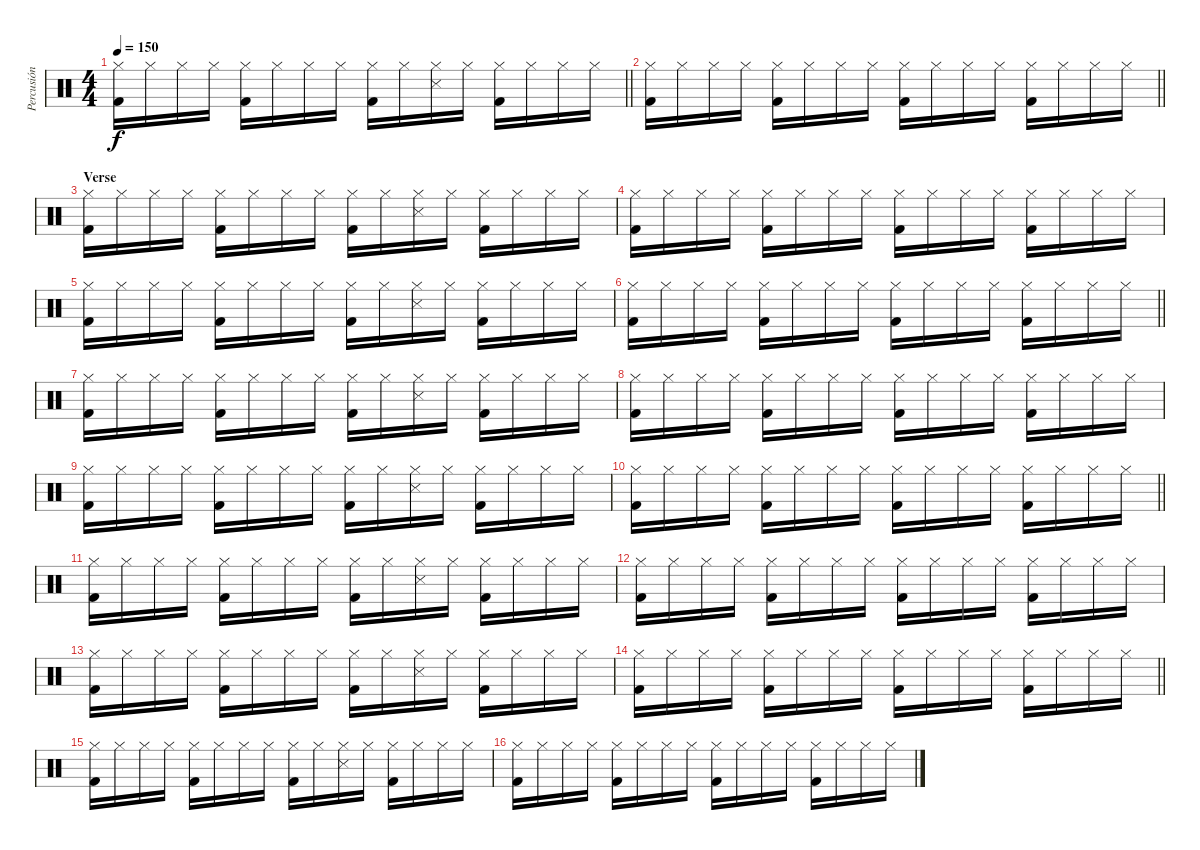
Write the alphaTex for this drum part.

\track ("Percusión" "Percusión") {instrument percussion}
\staff {score}
\articulation defaults
\ts (4 4)
\tempo 150
\clef neutral
\barLineRight lightlight
\ks c
("Kick (hit) 2" "Hi-Hat (closed)").16{dy f} "Hi-Hat (closed)".16 "Hi-Hat (closed)".16 "Hi-Hat (closed)".16 ("Kick (hit) 2" "Hi-Hat (closed)").16 "Hi-Hat (closed)".16 "Hi-Hat (closed)".16 "Hi-Hat (closed)".16 ("Kick (hit) 2" "Hi-Hat (closed)").16 "Hi-Hat (closed)".16 ("Snare (side stick) 3" "Hi-Hat (closed)").16 "Hi-Hat (closed)".16 ("Kick (hit) 2" "Hi-Hat (closed)").16 "Hi-Hat (closed)".16 "Hi-Hat (closed)".16 "Hi-Hat (closed)".16 |
\barLineRight lightlight
("Kick (hit) 2" "Hi-Hat (closed)").16 "Hi-Hat (closed)".16 "Hi-Hat (closed)".16 "Hi-Hat (closed)".16 ("Kick (hit) 2" "Hi-Hat (closed)").16 "Hi-Hat (closed)".16 "Hi-Hat (closed)".16 "Hi-Hat (closed)".16 ("Kick (hit) 2" "Hi-Hat (closed)").16 "Hi-Hat (closed)".16 "Hi-Hat (closed)".16 "Hi-Hat (closed)".16 ("Kick (hit) 2" "Hi-Hat (closed)").16 "Hi-Hat (closed)".16 "Hi-Hat (closed)".16 "Hi-Hat (closed)".16 |
\section ("" "Verse")
("Kick (hit) 2" "Hi-Hat (closed)").16 "Hi-Hat (closed)".16 "Hi-Hat (closed)".16 "Hi-Hat (closed)".16 ("Kick (hit) 2" "Hi-Hat (closed)").16 "Hi-Hat (closed)".16 "Hi-Hat (closed)".16 "Hi-Hat (closed)".16 ("Kick (hit) 2" "Hi-Hat (closed)").16 "Hi-Hat (closed)".16 ("Snare (side stick) 3" "Hi-Hat (closed)").16 "Hi-Hat (closed)".16 ("Kick (hit) 2" "Hi-Hat (closed)").16 "Hi-Hat (closed)".16 "Hi-Hat (closed)".16 "Hi-Hat (closed)".16 |
("Kick (hit) 2" "Hi-Hat (closed)").16 "Hi-Hat (closed)".16 "Hi-Hat (closed)".16 "Hi-Hat (closed)".16 ("Kick (hit) 2" "Hi-Hat (closed)").16 "Hi-Hat (closed)".16 "Hi-Hat (closed)".16 "Hi-Hat (closed)".16 ("Kick (hit) 2" "Hi-Hat (closed)").16 "Hi-Hat (closed)".16 "Hi-Hat (closed)".16 "Hi-Hat (closed)".16 ("Kick (hit) 2" "Hi-Hat (closed)").16 "Hi-Hat (closed)".16 "Hi-Hat (closed)".16 "Hi-Hat (closed)".16 |
("Kick (hit) 2" "Hi-Hat (closed)").16 "Hi-Hat (closed)".16 "Hi-Hat (closed)".16 "Hi-Hat (closed)".16 ("Kick (hit) 2" "Hi-Hat (closed)").16 "Hi-Hat (closed)".16 "Hi-Hat (closed)".16 "Hi-Hat (closed)".16 ("Kick (hit) 2" "Hi-Hat (closed)").16 "Hi-Hat (closed)".16 ("Snare (side stick) 3" "Hi-Hat (closed)").16 "Hi-Hat (closed)".16 ("Kick (hit) 2" "Hi-Hat (closed)").16 "Hi-Hat (closed)".16 "Hi-Hat (closed)".16 "Hi-Hat (closed)".16 |
\barLineRight lightlight
("Kick (hit) 2" "Hi-Hat (closed)").16 "Hi-Hat (closed)".16 "Hi-Hat (closed)".16 "Hi-Hat (closed)".16 ("Kick (hit) 2" "Hi-Hat (closed)").16 "Hi-Hat (closed)".16 "Hi-Hat (closed)".16 "Hi-Hat (closed)".16 ("Kick (hit) 2" "Hi-Hat (closed)").16 "Hi-Hat (closed)".16 "Hi-Hat (closed)".16 "Hi-Hat (closed)".16 ("Kick (hit) 2" "Hi-Hat (closed)").16 "Hi-Hat (closed)".16 "Hi-Hat (closed)".16 "Hi-Hat (closed)".16 |
("Kick (hit) 2" "Hi-Hat (closed)").16 "Hi-Hat (closed)".16 "Hi-Hat (closed)".16 "Hi-Hat (closed)".16 ("Kick (hit) 2" "Hi-Hat (closed)").16 "Hi-Hat (closed)".16 "Hi-Hat (closed)".16 "Hi-Hat (closed)".16 ("Kick (hit) 2" "Hi-Hat (closed)").16 "Hi-Hat (closed)".16 ("Snare (side stick) 3" "Hi-Hat (closed)").16 "Hi-Hat (closed)".16 ("Kick (hit) 2" "Hi-Hat (closed)").16 "Hi-Hat (closed)".16 "Hi-Hat (closed)".16 "Hi-Hat (closed)".16 |
("Kick (hit) 2" "Hi-Hat (closed)").16 "Hi-Hat (closed)".16 "Hi-Hat (closed)".16 "Hi-Hat (closed)".16 ("Kick (hit) 2" "Hi-Hat (closed)").16 "Hi-Hat (closed)".16 "Hi-Hat (closed)".16 "Hi-Hat (closed)".16 ("Kick (hit) 2" "Hi-Hat (closed)").16 "Hi-Hat (closed)".16 "Hi-Hat (closed)".16 "Hi-Hat (closed)".16 ("Kick (hit) 2" "Hi-Hat (closed)").16 "Hi-Hat (closed)".16 "Hi-Hat (closed)".16 "Hi-Hat (closed)".16 |
("Kick (hit) 2" "Hi-Hat (closed)").16 "Hi-Hat (closed)".16 "Hi-Hat (closed)".16 "Hi-Hat (closed)".16 ("Kick (hit) 2" "Hi-Hat (closed)").16 "Hi-Hat (closed)".16 "Hi-Hat (closed)".16 "Hi-Hat (closed)".16 ("Kick (hit) 2" "Hi-Hat (closed)").16 "Hi-Hat (closed)".16 ("Snare (side stick) 3" "Hi-Hat (closed)").16 "Hi-Hat (closed)".16 ("Kick (hit) 2" "Hi-Hat (closed)").16 "Hi-Hat (closed)".16 "Hi-Hat (closed)".16 "Hi-Hat (closed)".16 |
\barLineRight lightlight
("Kick (hit) 2" "Hi-Hat (closed)").16 "Hi-Hat (closed)".16 "Hi-Hat (closed)".16 "Hi-Hat (closed)".16 ("Kick (hit) 2" "Hi-Hat (closed)").16 "Hi-Hat (closed)".16 "Hi-Hat (closed)".16 "Hi-Hat (closed)".16 ("Kick (hit) 2" "Hi-Hat (closed)").16 "Hi-Hat (closed)".16 "Hi-Hat (closed)".16 "Hi-Hat (closed)".16 ("Kick (hit) 2" "Hi-Hat (closed)").16 "Hi-Hat (closed)".16 "Hi-Hat (closed)".16 "Hi-Hat (closed)".16 |
("Kick (hit) 2" "Hi-Hat (closed)").16 "Hi-Hat (closed)".16 "Hi-Hat (closed)".16 "Hi-Hat (closed)".16 ("Kick (hit) 2" "Hi-Hat (closed)").16 "Hi-Hat (closed)".16 "Hi-Hat (closed)".16 "Hi-Hat (closed)".16 ("Kick (hit) 2" "Hi-Hat (closed)").16 "Hi-Hat (closed)".16 ("Snare (side stick) 3" "Hi-Hat (closed)").16 "Hi-Hat (closed)".16 ("Kick (hit) 2" "Hi-Hat (closed)").16 "Hi-Hat (closed)".16 "Hi-Hat (closed)".16 "Hi-Hat (closed)".16 |
("Kick (hit) 2" "Hi-Hat (closed)").16 "Hi-Hat (closed)".16 "Hi-Hat (closed)".16 "Hi-Hat (closed)".16 ("Kick (hit) 2" "Hi-Hat (closed)").16 "Hi-Hat (closed)".16 "Hi-Hat (closed)".16 "Hi-Hat (closed)".16 ("Kick (hit) 2" "Hi-Hat (closed)").16 "Hi-Hat (closed)".16 "Hi-Hat (closed)".16 "Hi-Hat (closed)".16 ("Kick (hit) 2" "Hi-Hat (closed)").16 "Hi-Hat (closed)".16 "Hi-Hat (closed)".16 "Hi-Hat (closed)".16 |
("Kick (hit) 2" "Hi-Hat (closed)").16 "Hi-Hat (closed)".16 "Hi-Hat (closed)".16 "Hi-Hat (closed)".16 ("Kick (hit) 2" "Hi-Hat (closed)").16 "Hi-Hat (closed)".16 "Hi-Hat (closed)".16 "Hi-Hat (closed)".16 ("Kick (hit) 2" "Hi-Hat (closed)").16 "Hi-Hat (closed)".16 ("Snare (side stick) 3" "Hi-Hat (closed)").16 "Hi-Hat (closed)".16 ("Kick (hit) 2" "Hi-Hat (closed)").16 "Hi-Hat (closed)".16 "Hi-Hat (closed)".16 "Hi-Hat (closed)".16 |
\barLineRight lightlight
("Kick (hit) 2" "Hi-Hat (closed)").16 "Hi-Hat (closed)".16 "Hi-Hat (closed)".16 "Hi-Hat (closed)".16 ("Kick (hit) 2" "Hi-Hat (closed)").16 "Hi-Hat (closed)".16 "Hi-Hat (closed)".16 "Hi-Hat (closed)".16 ("Kick (hit) 2" "Hi-Hat (closed)").16 "Hi-Hat (closed)".16 "Hi-Hat (closed)".16 "Hi-Hat (closed)".16 ("Kick (hit) 2" "Hi-Hat (closed)").16 "Hi-Hat (closed)".16 "Hi-Hat (closed)".16 "Hi-Hat (closed)".16 |
("Kick (hit) 2" "Hi-Hat (closed)").16 "Hi-Hat (closed)".16 "Hi-Hat (closed)".16 "Hi-Hat (closed)".16 ("Kick (hit) 2" "Hi-Hat (closed)").16 "Hi-Hat (closed)".16 "Hi-Hat (closed)".16 "Hi-Hat (closed)".16 ("Kick (hit) 2" "Hi-Hat (closed)").16 "Hi-Hat (closed)".16 ("Snare (side stick) 3" "Hi-Hat (closed)").16 "Hi-Hat (closed)".16 ("Kick (hit) 2" "Hi-Hat (closed)").16 "Hi-Hat (closed)".16 "Hi-Hat (closed)".16 "Hi-Hat (closed)".16 |
("Kick (hit) 2" "Hi-Hat (closed)").16 "Hi-Hat (closed)".16 "Hi-Hat (closed)".16 "Hi-Hat (closed)".16 ("Kick (hit) 2" "Hi-Hat (closed)").16 "Hi-Hat (closed)".16 "Hi-Hat (closed)".16 "Hi-Hat (closed)".16 ("Kick (hit) 2" "Hi-Hat (closed)").16 "Hi-Hat (closed)".16 "Hi-Hat (closed)".16 "Hi-Hat (closed)".16 ("Kick (hit) 2" "Hi-Hat (closed)").16 "Hi-Hat (closed)".16 "Hi-Hat (closed)".16 "Hi-Hat (closed)".16
